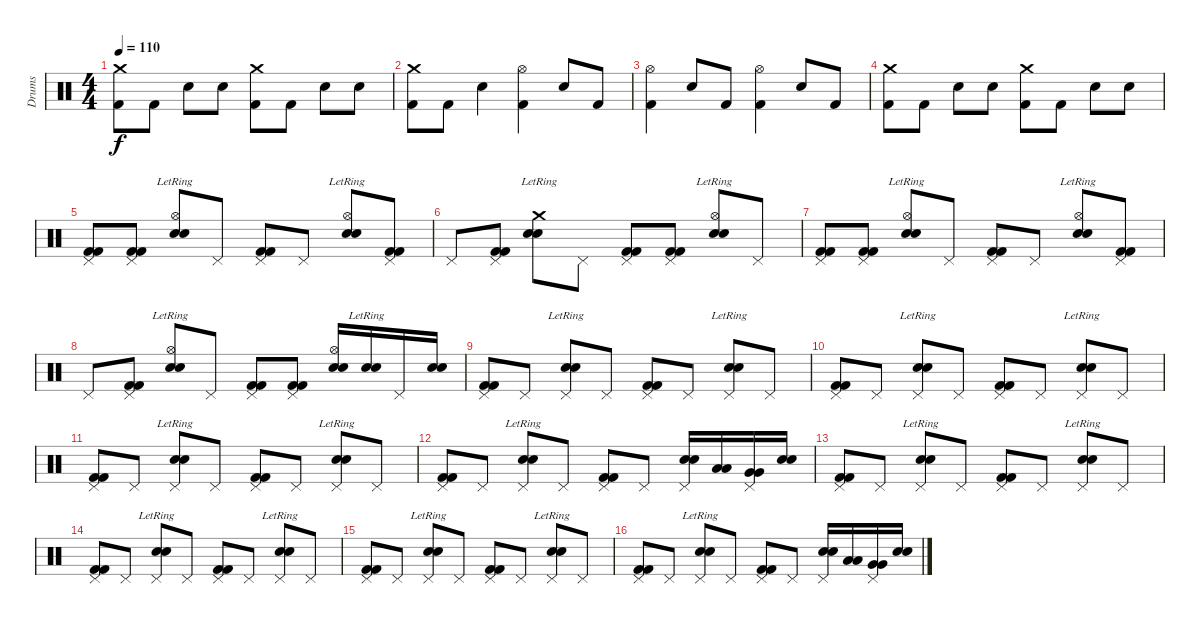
\track ("Drums" "Drums") {instrument percussion}
\staff {score}
\articulation defaults
\ts (4 4)
\tempo 110
\clef neutral
\ks c
("Crash medium (hit)" "Kick (hit) 2").8{dy f} "Kick (hit) 2".8 "Electric Snare (hit)".8 "Electric Snare (hit)".8 ("Crash medium (hit)" "Kick (hit) 2").8 "Kick (hit) 2".8 "Electric Snare (hit)".8 "Electric Snare (hit)".8 |
("Crash medium (hit)" "Kick (hit) 2").8 "Kick (hit) 2".8 "Electric Snare (hit)".4 ("Hi-Hat (open)" "Kick (hit) 2").4 "Electric Snare (hit)".8 "Kick (hit) 2".8 |
("Hi-Hat (open)" "Kick (hit) 2").4 "Electric Snare (hit)".8 "Kick (hit) 2".8 ("Hi-Hat (open)" "Kick (hit) 2").4 "Electric Snare (hit)".8 "Kick (hit) 2".8 |
("Crash medium (hit)" "Kick (hit) 2").8 "Kick (hit) 2".8 "Electric Snare (hit)".8 "Electric Snare (hit)".8 ("Crash medium (hit)" "Kick (hit) 2").8 "Kick (hit) 2".8 "Electric Snare (hit)".8 "Electric Snare (hit)".8 |
("Pedal Hi-Hat (hit)" "Kick (hit) 2" "Kick (hit) 2").8 ("Pedal Hi-Hat (hit)" "Kick (hit) 2" "Kick (hit) 2").8 ("Hi-Hat (open)" "Electric Snare (hit)"{lr} "Snare (hit) 2").8 "Pedal Hi-Hat (hit)".8 ("Pedal Hi-Hat (hit)" "Kick (hit) 2" "Kick (hit) 2").8 "Pedal Hi-Hat (hit)".8 ("Hi-Hat (open)" "Electric Snare (hit)"{lr} "Snare (hit) 2").8 ("Pedal Hi-Hat (hit)" "Kick (hit) 2" "Kick (hit) 2").8 |
"Pedal Hi-Hat (hit)".8 ("Pedal Hi-Hat (hit)" "Kick (hit) 2" "Kick (hit) 2").8 ("Crash medium (hit)" "Electric Snare (hit)"{lr} "Snare (hit) 2").8 "Pedal Hi-Hat (hit)".8 ("Pedal Hi-Hat (hit)" "Kick (hit) 2" "Kick (hit) 2").8 ("Pedal Hi-Hat (hit)" "Kick (hit) 2" "Kick (hit) 2").8 ("Hi-Hat (open)" "Electric Snare (hit)"{lr} "Snare (hit) 2").8 "Pedal Hi-Hat (hit)".8 |
("Pedal Hi-Hat (hit)" "Kick (hit) 2" "Kick (hit) 2").8 ("Pedal Hi-Hat (hit)" "Kick (hit) 2" "Kick (hit) 2").8 ("Hi-Hat (open)" "Electric Snare (hit)"{lr} "Snare (hit) 2").8 "Pedal Hi-Hat (hit)".8 ("Pedal Hi-Hat (hit)" "Kick (hit) 2" "Kick (hit) 2").8 "Pedal Hi-Hat (hit)".8 ("Hi-Hat (open)" "Electric Snare (hit)"{lr} "Snare (hit) 2").8 ("Pedal Hi-Hat (hit)" "Kick (hit) 2" "Kick (hit) 2").8 |
"Pedal Hi-Hat (hit)".8 ("Pedal Hi-Hat (hit)" "Kick (hit) 2" "Kick (hit) 2").8 ("Hi-Hat (open)" "Electric Snare (hit)"{lr} "Snare (hit) 2").8 "Pedal Hi-Hat (hit)".8 ("Pedal Hi-Hat (hit)" "Kick (hit) 2" "Kick (hit) 2").8 ("Pedal Hi-Hat (hit)" "Kick (hit) 2" "Kick (hit) 2").8 ("Hi-Hat (open)" "Electric Snare (hit)" "Snare (hit) 2").16 ("Electric Snare (hit)"{lr} "Snare (hit) 2").16 "Pedal Hi-Hat (hit)".16 ("Electric Snare (hit)" "Snare (hit) 2").16 |
("Pedal Hi-Hat (hit)" "Kick (hit) 2" "Kick (hit) 2").8 "Pedal Hi-Hat (hit)".8 ("Pedal Hi-Hat (hit)" "Electric Snare (hit)"{lr} "Snare (hit) 2").8 "Pedal Hi-Hat (hit)".8 ("Pedal Hi-Hat (hit)" "Kick (hit) 2" "Kick (hit) 2").8 "Pedal Hi-Hat (hit)".8 ("Pedal Hi-Hat (hit)" "Electric Snare (hit)"{lr} "Snare (hit) 2").8 "Pedal Hi-Hat (hit)".8 |
("Pedal Hi-Hat (hit)" "Kick (hit) 2" "Kick (hit) 2").8 "Pedal Hi-Hat (hit)".8 ("Pedal Hi-Hat (hit)" "Electric Snare (hit)"{lr} "Snare (hit) 2").8 "Pedal Hi-Hat (hit)".8 ("Pedal Hi-Hat (hit)" "Kick (hit) 2" "Kick (hit) 2").8 "Pedal Hi-Hat (hit)".8 ("Pedal Hi-Hat (hit)" "Electric Snare (hit)"{lr} "Snare (hit) 2").8 "Pedal Hi-Hat (hit)".8 |
("Pedal Hi-Hat (hit)" "Kick (hit) 2" "Kick (hit) 2").8 "Pedal Hi-Hat (hit)".8 ("Pedal Hi-Hat (hit)" "Electric Snare (hit)"{lr} "Snare (hit) 2").8 "Pedal Hi-Hat (hit)".8 ("Pedal Hi-Hat (hit)" "Kick (hit) 2" "Kick (hit) 2").8 "Pedal Hi-Hat (hit)".8 ("Pedal Hi-Hat (hit)" "Electric Snare (hit)"{lr} "Snare (hit) 2").8 "Pedal Hi-Hat (hit)".8 |
("Pedal Hi-Hat (hit)" "Kick (hit) 2" "Kick (hit) 2").8 "Pedal Hi-Hat (hit)".8 ("Pedal Hi-Hat (hit)" "Electric Snare (hit)"{lr} "Snare (hit) 2").8 "Pedal Hi-Hat (hit)".8 ("Pedal Hi-Hat (hit)" "Kick (hit) 2" "Kick (hit) 2").8 "Pedal Hi-Hat (hit)".8 ("Pedal Hi-Hat (hit)" "Electric Snare (hit)" "Snare (hit) 2").16 ("Low Tom (hit)" "Low Tom (hit)").16 ("Pedal Hi-Hat (hit)" "Very Low Tom (hit)" "Very Low Tom (hit)").16 ("Electric Snare (hit)" "Snare (hit) 2").16 |
("Pedal Hi-Hat (hit)" "Kick (hit) 2" "Kick (hit) 2").8 "Pedal Hi-Hat (hit)".8 ("Pedal Hi-Hat (hit)" "Electric Snare (hit)"{lr} "Snare (hit) 2").8 "Pedal Hi-Hat (hit)".8 ("Pedal Hi-Hat (hit)" "Kick (hit) 2" "Kick (hit) 2").8 "Pedal Hi-Hat (hit)".8 ("Pedal Hi-Hat (hit)" "Electric Snare (hit)"{lr} "Snare (hit) 2").8 "Pedal Hi-Hat (hit)".8 |
("Pedal Hi-Hat (hit)" "Kick (hit) 2" "Kick (hit) 2").8 "Pedal Hi-Hat (hit)".8 ("Pedal Hi-Hat (hit)" "Electric Snare (hit)"{lr} "Snare (hit) 2").8 "Pedal Hi-Hat (hit)".8 ("Pedal Hi-Hat (hit)" "Kick (hit) 2" "Kick (hit) 2").8 "Pedal Hi-Hat (hit)".8 ("Pedal Hi-Hat (hit)" "Electric Snare (hit)"{lr} "Snare (hit) 2").8 "Pedal Hi-Hat (hit)".8 |
("Pedal Hi-Hat (hit)" "Kick (hit) 2" "Kick (hit) 2").8 "Pedal Hi-Hat (hit)".8 ("Pedal Hi-Hat (hit)" "Electric Snare (hit)"{lr} "Snare (hit) 2").8 "Pedal Hi-Hat (hit)".8 ("Pedal Hi-Hat (hit)" "Kick (hit) 2" "Kick (hit) 2").8 "Pedal Hi-Hat (hit)".8 ("Pedal Hi-Hat (hit)" "Electric Snare (hit)"{lr} "Snare (hit) 2").8 "Pedal Hi-Hat (hit)".8 |
("Pedal Hi-Hat (hit)" "Kick (hit) 2" "Kick (hit) 2").8 "Pedal Hi-Hat (hit)".8 ("Pedal Hi-Hat (hit)" "Electric Snare (hit)"{lr} "Snare (hit) 2").8 "Pedal Hi-Hat (hit)".8 ("Pedal Hi-Hat (hit)" "Kick (hit) 2" "Kick (hit) 2").8 "Pedal Hi-Hat (hit)".8 ("Pedal Hi-Hat (hit)" "Electric Snare (hit)" "Snare (hit) 2").16 ("Low Tom (hit)" "Low Tom (hit)").16 ("Pedal Hi-Hat (hit)" "Very Low Tom (hit)" "Very Low Tom (hit)").16 ("Electric Snare (hit)" "Snare (hit) 2").16
